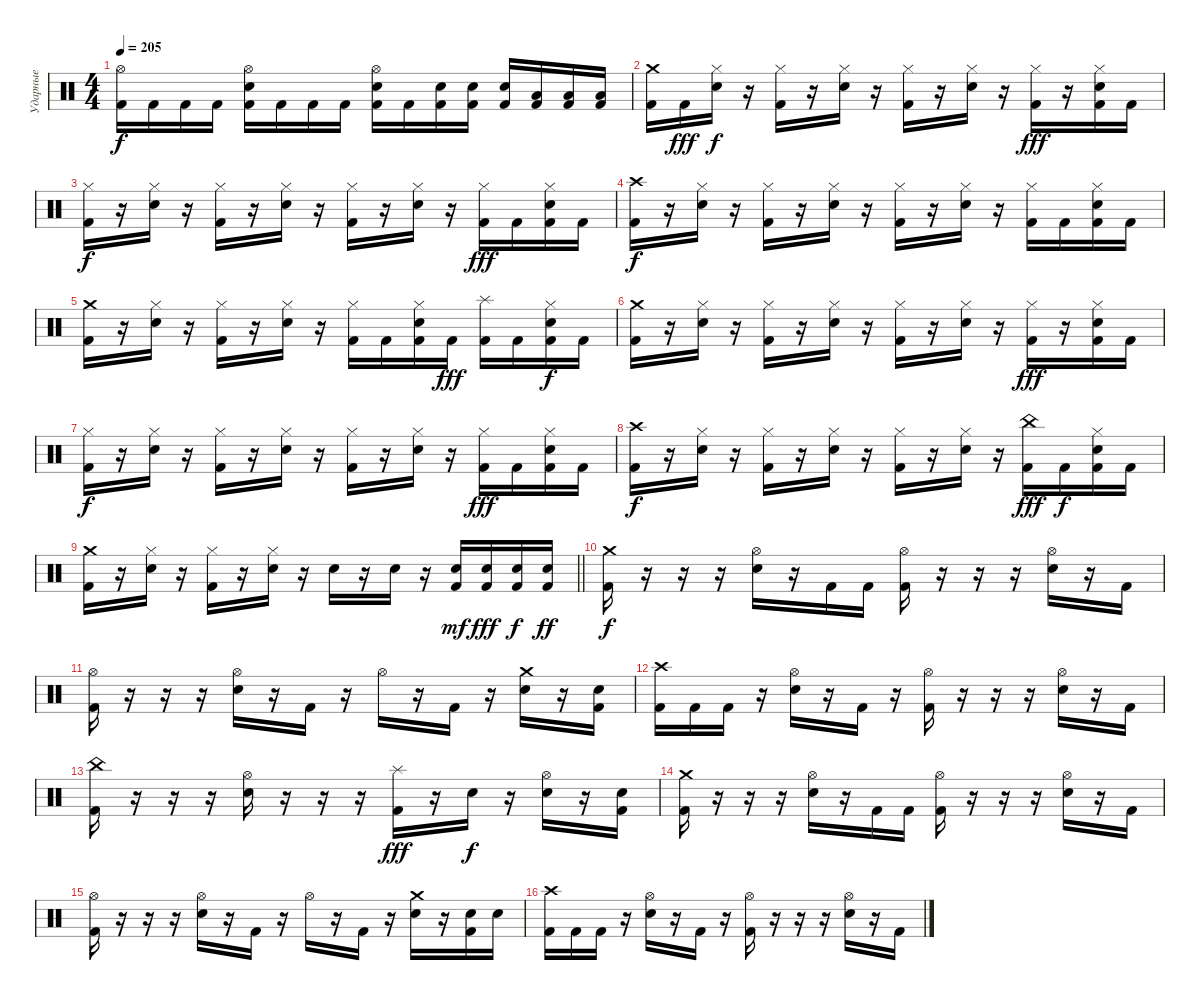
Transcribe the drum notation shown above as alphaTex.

\track ("Ударные" "Ударные") {instrument percussion}
\staff {score}
\articulation defaults
\ts (4 4)
\tempo 205
\clef neutral
\ks c
("Hi-Hat (open)" "Kick (hit) 2").16{dy f} "Kick (hit) 2".16 "Kick (hit) 2".16 "Kick (hit) 2".16 ("Hi-Hat (open)" "Snare (hit) 2" "Kick (hit) 2").16 "Kick (hit) 2".16 "Kick (hit) 2".16 "Kick (hit) 2".16 ("Hi-Hat (open)" "Snare (hit) 2" "Kick (hit) 2").16 "Kick (hit) 2".16 ("Snare (hit) 2" "Kick (hit) 2").16 ("Snare (hit) 2" "Kick (hit) 2").16 ("Snare (hit) 2" "Kick (hit) 2").16 ("Low Tom (hit)" "Kick (hit) 2").16 ("Low Tom (hit)" "Kick (hit) 2").16 ("Low Tom (hit)" "Kick (hit) 2").16 |
("Crash medium (hit)" "Kick (hit) 2").16 "Kick (hit) 2".16{dy fff} ("Hi-Hat (closed)" "Snare (hit) 2").16{dy f} r.16 ("Hi-Hat (closed)" "Kick (hit) 2").16 r.16 ("Hi-Hat (closed)" "Snare (hit) 2").16 r.16 ("Hi-Hat (closed)" "Kick (hit) 2").16 r.16 ("Hi-Hat (closed)" "Snare (hit) 2").16 r.16 ("Hi-Hat (closed)" "Kick (hit) 2").16{dy fff} r.16 ("Hi-Hat (closed)" "Snare (hit) 2" "Kick (hit) 2").16 "Kick (hit) 2".16 |
("Hi-Hat (closed)" "Kick (hit) 2").16{dy f} r.16 ("Hi-Hat (closed)" "Snare (hit) 2").16 r.16 ("Hi-Hat (closed)" "Kick (hit) 2").16 r.16 ("Hi-Hat (closed)" "Snare (hit) 2").16 r.16 ("Hi-Hat (closed)" "Kick (hit) 2").16 r.16 ("Hi-Hat (closed)" "Snare (hit) 2").16 r.16 ("Hi-Hat (closed)" "Kick (hit) 2").16{dy fff} "Kick (hit) 2".16 ("Hi-Hat (closed)" "Snare (hit) 2" "Kick (hit) 2").16 "Kick (hit) 2".16 |
("Crash high (hit)" "Kick (hit) 2").16{dy f} r.16 ("Hi-Hat (closed)" "Snare (hit) 2").16 r.16 ("Hi-Hat (closed)" "Kick (hit) 2").16 r.16 ("Hi-Hat (closed)" "Snare (hit) 2").16 r.16 ("Hi-Hat (closed)" "Kick (hit) 2").16 r.16 ("Hi-Hat (closed)" "Snare (hit) 2").16 r.16 ("Hi-Hat (closed)" "Kick (hit) 2").16 "Kick (hit) 2".16 ("Hi-Hat (closed)" "Snare (hit) 2" "Kick (hit) 2").16 "Kick (hit) 2".16 |
("Crash medium (hit)" "Kick (hit) 2").16 r.16 ("Hi-Hat (closed)" "Snare (hit) 2").16 r.16 ("Hi-Hat (closed)" "Kick (hit) 2").16 r.16 ("Hi-Hat (closed)" "Snare (hit) 2").16 r.16 ("Hi-Hat (closed)" "Kick (hit) 2").16 "Kick (hit) 2".16 ("Hi-Hat (closed)" "Snare (hit) 2" "Kick (hit) 2").16 "Kick (hit) 2".16{dy fff} ("Splash (hit)" "Kick (hit) 2").16 "Kick (hit) 2".16 ("Hi-Hat (closed)" "Snare (hit) 2" "Kick (hit) 2").16{dy f} "Kick (hit) 2".16 |
("Crash medium (hit)" "Kick (hit) 2").16 r.16 ("Hi-Hat (closed)" "Snare (hit) 2").16 r.16 ("Hi-Hat (closed)" "Kick (hit) 2").16 r.16 ("Hi-Hat (closed)" "Snare (hit) 2").16 r.16 ("Hi-Hat (closed)" "Kick (hit) 2").16 r.16 ("Hi-Hat (closed)" "Snare (hit) 2").16 r.16 ("Hi-Hat (closed)" "Kick (hit) 2").16{dy fff} r.16 ("Hi-Hat (closed)" "Snare (hit) 2" "Kick (hit) 2").16 "Kick (hit) 2".16 |
("Hi-Hat (closed)" "Kick (hit) 2").16{dy f} r.16 ("Hi-Hat (closed)" "Snare (hit) 2").16 r.16 ("Hi-Hat (closed)" "Kick (hit) 2").16 r.16 ("Hi-Hat (closed)" "Snare (hit) 2").16 r.16 ("Hi-Hat (closed)" "Kick (hit) 2").16 r.16 ("Hi-Hat (closed)" "Snare (hit) 2").16 r.16 ("Hi-Hat (closed)" "Kick (hit) 2").16{dy fff} "Kick (hit) 2".16 ("Hi-Hat (closed)" "Snare (hit) 2" "Kick (hit) 2").16 "Kick (hit) 2".16 |
("Crash high (hit)" "Kick (hit) 2").16{dy f} r.16 ("Hi-Hat (closed)" "Snare (hit) 2").16 r.16 ("Hi-Hat (closed)" "Kick (hit) 2").16 r.16 ("Hi-Hat (closed)" "Snare (hit) 2").16 r.16 ("Hi-Hat (closed)" "Kick (hit) 2").16 r.16 ("Hi-Hat (closed)" "Snare (hit) 2").16 r.16 ("China (hit)" "Kick (hit) 2").16{dy fff} "Kick (hit) 2".16{dy f} ("Hi-Hat (closed)" "Snare (hit) 2" "Kick (hit) 2").16 "Kick (hit) 2".16 |
\barLineRight lightlight
("Crash medium (hit)" "Kick (hit) 2").16 r.16 ("Hi-Hat (closed)" "Snare (hit) 2").16 r.16 ("Hi-Hat (closed)" "Kick (hit) 2").16 r.16 ("Hi-Hat (closed)" "Snare (hit) 2").16 r.16 "Snare (hit) 2".16 r.16 "Snare (hit) 2".16 r.16 ("Snare (hit) 2" "Kick (hit) 2").16{dy mf} ("Snare (hit) 2" "Kick (hit) 2").16{dy fff} ("Snare (hit) 2" "Kick (hit) 2").16{dy f} ("Snare (hit) 2" "Kick (hit) 2").16{dy ff} |
("Crash medium (hit)" "Kick (hit) 2").16{dy f} r.16 r.16 r.16 ("Hi-Hat (open)" "Snare (hit) 2").16 r.16 "Kick (hit) 2".16 "Kick (hit) 2".16 ("Hi-Hat (open)" "Kick (hit) 2").16 r.16 r.16 r.16 ("Hi-Hat (open)" "Snare (hit) 2").16 r.16 "Kick (hit) 2".16 |
("Hi-Hat (open)" "Kick (hit) 2").16 r.16 r.16 r.16 ("Hi-Hat (open)" "Snare (hit) 2").16 r.16 "Kick (hit) 2".16 r.16 "Hi-Hat (open)".16 r.16 "Kick (hit) 2".16 r.16 ("Crash medium (hit)" "Snare (hit) 2").16 r.16 ("Snare (hit) 2" "Kick (hit) 2").16 |
("Crash high (hit)" "Kick (hit) 2").16 "Kick (hit) 2".16 "Kick (hit) 2".16 r.16 ("Hi-Hat (open)" "Snare (hit) 2").16 r.16 "Kick (hit) 2".16 r.16 ("Hi-Hat (open)" "Kick (hit) 2").16 r.16 r.16 r.16 ("Hi-Hat (open)" "Snare (hit) 2").16 r.16 "Kick (hit) 2".16 |
("China (hit)" "Kick (hit) 2").16 r.16 r.16 r.16 ("Hi-Hat (open)" "Snare (hit) 2").16 r.16 r.16 r.16 ("Splash (hit)" "Kick (hit) 2").16{dy fff} r.16 "Snare (hit) 2".16{dy f} r.16 ("Hi-Hat (open)" "Snare (hit) 2").16 r.16 ("Snare (hit) 2" "Kick (hit) 2").16 |
("Crash medium (hit)" "Kick (hit) 2").16 r.16 r.16 r.16 ("Hi-Hat (open)" "Snare (hit) 2").16 r.16 "Kick (hit) 2".16 "Kick (hit) 2".16 ("Hi-Hat (open)" "Kick (hit) 2").16 r.16 r.16 r.16 ("Hi-Hat (open)" "Snare (hit) 2").16 r.16 "Kick (hit) 2".16 |
("Hi-Hat (open)" "Kick (hit) 2").16 r.16 r.16 r.16 ("Hi-Hat (open)" "Snare (hit) 2").16 r.16 "Kick (hit) 2".16 r.16 "Hi-Hat (open)".16 r.16 "Kick (hit) 2".16 r.16 ("Crash medium (hit)" "Snare (hit) 2").16 r.16 ("Snare (hit) 2" "Kick (hit) 2").16 "Snare (hit) 2".16 |
("Crash high (hit)" "Kick (hit) 2").16 "Kick (hit) 2".16 "Kick (hit) 2".16 r.16 ("Hi-Hat (open)" "Snare (hit) 2").16 r.16 "Kick (hit) 2".16 r.16 ("Hi-Hat (open)" "Kick (hit) 2").16 r.16 r.16 r.16 ("Hi-Hat (open)" "Snare (hit) 2").16 r.16 "Kick (hit) 2".16
